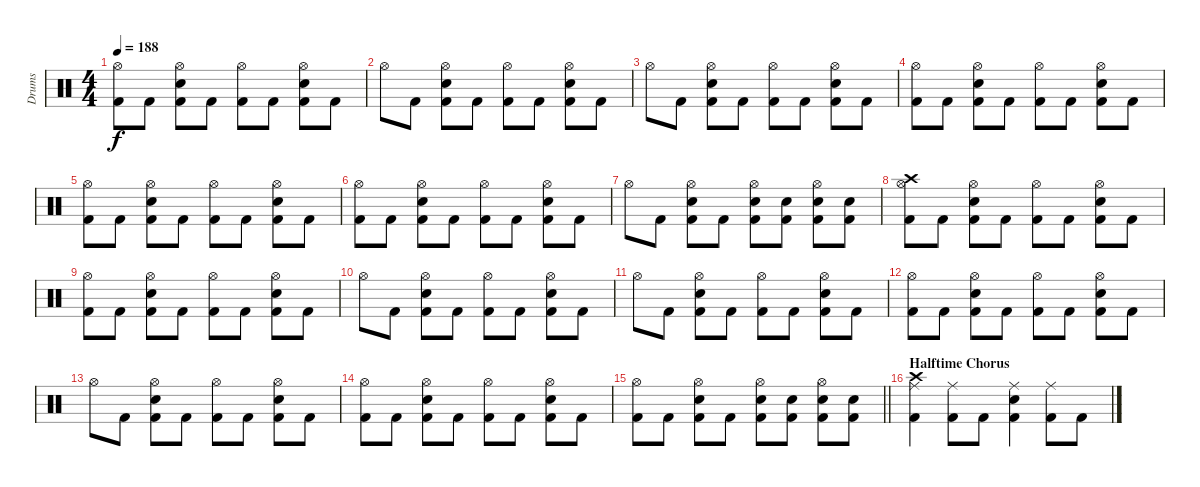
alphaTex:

\track ("Drums" "Drums") {instrument percussion}
\staff {score}
\articulation defaults
\ts (4 4)
\tempo 188
\clef neutral
\ks c
("Hi-Hat (open)" "Kick (hit) 2").8{dy f} "Kick (hit) 2".8 ("Hi-Hat (open)" "Snare (hit) 2" "Kick (hit) 2").8 "Kick (hit) 2".8 ("Hi-Hat (open)" "Kick (hit) 2").8 "Kick (hit) 2".8 ("Hi-Hat (open)" "Snare (hit) 2" "Kick (hit) 2").8 "Kick (hit) 2".8 |
"Hi-Hat (open)".8 "Kick (hit) 2".8 ("Hi-Hat (open)" "Snare (hit) 2" "Kick (hit) 2").8 "Kick (hit) 2".8 ("Hi-Hat (open)" "Kick (hit) 2").8 "Kick (hit) 2".8 ("Hi-Hat (open)" "Snare (hit) 2" "Kick (hit) 2").8 "Kick (hit) 2".8 |
"Hi-Hat (open)".8 "Kick (hit) 2".8 ("Hi-Hat (open)" "Snare (hit) 2" "Kick (hit) 2").8 "Kick (hit) 2".8 ("Hi-Hat (open)" "Kick (hit) 2").8 "Kick (hit) 2".8 ("Hi-Hat (open)" "Snare (hit) 2" "Kick (hit) 2").8 "Kick (hit) 2".8 |
("Hi-Hat (open)" "Kick (hit) 2").8 "Kick (hit) 2".8 ("Hi-Hat (open)" "Snare (hit) 2" "Kick (hit) 2").8 "Kick (hit) 2".8 ("Hi-Hat (open)" "Kick (hit) 2").8 "Kick (hit) 2".8 ("Hi-Hat (open)" "Snare (hit) 2" "Kick (hit) 2").8 "Kick (hit) 2".8 |
("Hi-Hat (open)" "Kick (hit) 2").8 "Kick (hit) 2".8 ("Hi-Hat (open)" "Snare (hit) 2" "Kick (hit) 2").8 "Kick (hit) 2".8 ("Hi-Hat (open)" "Kick (hit) 2").8 "Kick (hit) 2".8 ("Hi-Hat (open)" "Snare (hit) 2" "Kick (hit) 2").8 "Kick (hit) 2".8 |
("Hi-Hat (open)" "Kick (hit) 2").8 "Kick (hit) 2".8 ("Hi-Hat (open)" "Snare (hit) 2" "Kick (hit) 2").8 "Kick (hit) 2".8 ("Hi-Hat (open)" "Kick (hit) 2").8 "Kick (hit) 2".8 ("Hi-Hat (open)" "Snare (hit) 2" "Kick (hit) 2").8 "Kick (hit) 2".8 |
"Hi-Hat (open)".8 "Kick (hit) 2".8 ("Hi-Hat (open)" "Snare (hit) 2" "Kick (hit) 2").8 "Kick (hit) 2".8 ("Hi-Hat (open)" "Snare (hit) 2" "Kick (hit) 2").8 ("Snare (hit) 2" "Kick (hit) 2").8 ("Hi-Hat (open)" "Snare (hit) 2" "Kick (hit) 2").8 ("Snare (hit) 2" "Kick (hit) 2").8 |
("Crash high (hit)" "Hi-Hat (open)" "Kick (hit) 2").8 "Kick (hit) 2".8 ("Hi-Hat (open)" "Snare (hit) 2" "Kick (hit) 2").8 "Kick (hit) 2".8 ("Hi-Hat (open)" "Kick (hit) 2").8 "Kick (hit) 2".8 ("Hi-Hat (open)" "Snare (hit) 2" "Kick (hit) 2").8 "Kick (hit) 2".8 |
("Hi-Hat (open)" "Kick (hit) 2").8 "Kick (hit) 2".8 ("Hi-Hat (open)" "Snare (hit) 2" "Kick (hit) 2").8 "Kick (hit) 2".8 ("Hi-Hat (open)" "Kick (hit) 2").8 "Kick (hit) 2".8 ("Hi-Hat (open)" "Snare (hit) 2" "Kick (hit) 2").8 "Kick (hit) 2".8 |
"Hi-Hat (open)".8 "Kick (hit) 2".8 ("Hi-Hat (open)" "Snare (hit) 2" "Kick (hit) 2").8 "Kick (hit) 2".8 ("Hi-Hat (open)" "Kick (hit) 2").8 "Kick (hit) 2".8 ("Hi-Hat (open)" "Snare (hit) 2" "Kick (hit) 2").8 "Kick (hit) 2".8 |
"Hi-Hat (open)".8 "Kick (hit) 2".8 ("Hi-Hat (open)" "Snare (hit) 2" "Kick (hit) 2").8 "Kick (hit) 2".8 ("Hi-Hat (open)" "Kick (hit) 2").8 "Kick (hit) 2".8 ("Hi-Hat (open)" "Snare (hit) 2" "Kick (hit) 2").8 "Kick (hit) 2".8 |
("Hi-Hat (open)" "Kick (hit) 2").8 "Kick (hit) 2".8 ("Hi-Hat (open)" "Snare (hit) 2" "Kick (hit) 2").8 "Kick (hit) 2".8 ("Hi-Hat (open)" "Kick (hit) 2").8 "Kick (hit) 2".8 ("Hi-Hat (open)" "Snare (hit) 2" "Kick (hit) 2").8 "Kick (hit) 2".8 |
"Hi-Hat (open)".8 "Kick (hit) 2".8 ("Hi-Hat (open)" "Snare (hit) 2" "Kick (hit) 2").8 "Kick (hit) 2".8 ("Hi-Hat (open)" "Kick (hit) 2").8 "Kick (hit) 2".8 ("Hi-Hat (open)" "Snare (hit) 2" "Kick (hit) 2").8 "Kick (hit) 2".8 |
("Hi-Hat (open)" "Kick (hit) 2").8 "Kick (hit) 2".8 ("Hi-Hat (open)" "Snare (hit) 2" "Kick (hit) 2").8 "Kick (hit) 2".8 ("Hi-Hat (open)" "Kick (hit) 2").8 "Kick (hit) 2".8 ("Hi-Hat (open)" "Snare (hit) 2" "Kick (hit) 2").8 "Kick (hit) 2".8 |
\barLineRight lightlight
("Hi-Hat (open)" "Kick (hit) 2").8 "Kick (hit) 2".8 ("Hi-Hat (open)" "Snare (hit) 2" "Kick (hit) 2").8 "Kick (hit) 2".8 ("Hi-Hat (open)" "Snare (hit) 2" "Kick (hit) 2").8 ("Snare (hit) 2" "Kick (hit) 2").8 ("Hi-Hat (open)" "Snare (hit) 2" "Kick (hit) 2").8 ("Snare (hit) 2" "Kick (hit) 2").8 |
\section ("" "Halftime Chorus")
("Crash high (hit)" "Ride (middle)" "Kick (hit) 2").4 ("Ride (middle)" "Kick (hit) 2").8 "Kick (hit) 2".8 ("Ride (middle)" "Snare (hit) 2" "Kick (hit) 2").4 ("Ride (middle)" "Kick (hit) 2").8 "Kick (hit) 2".8
